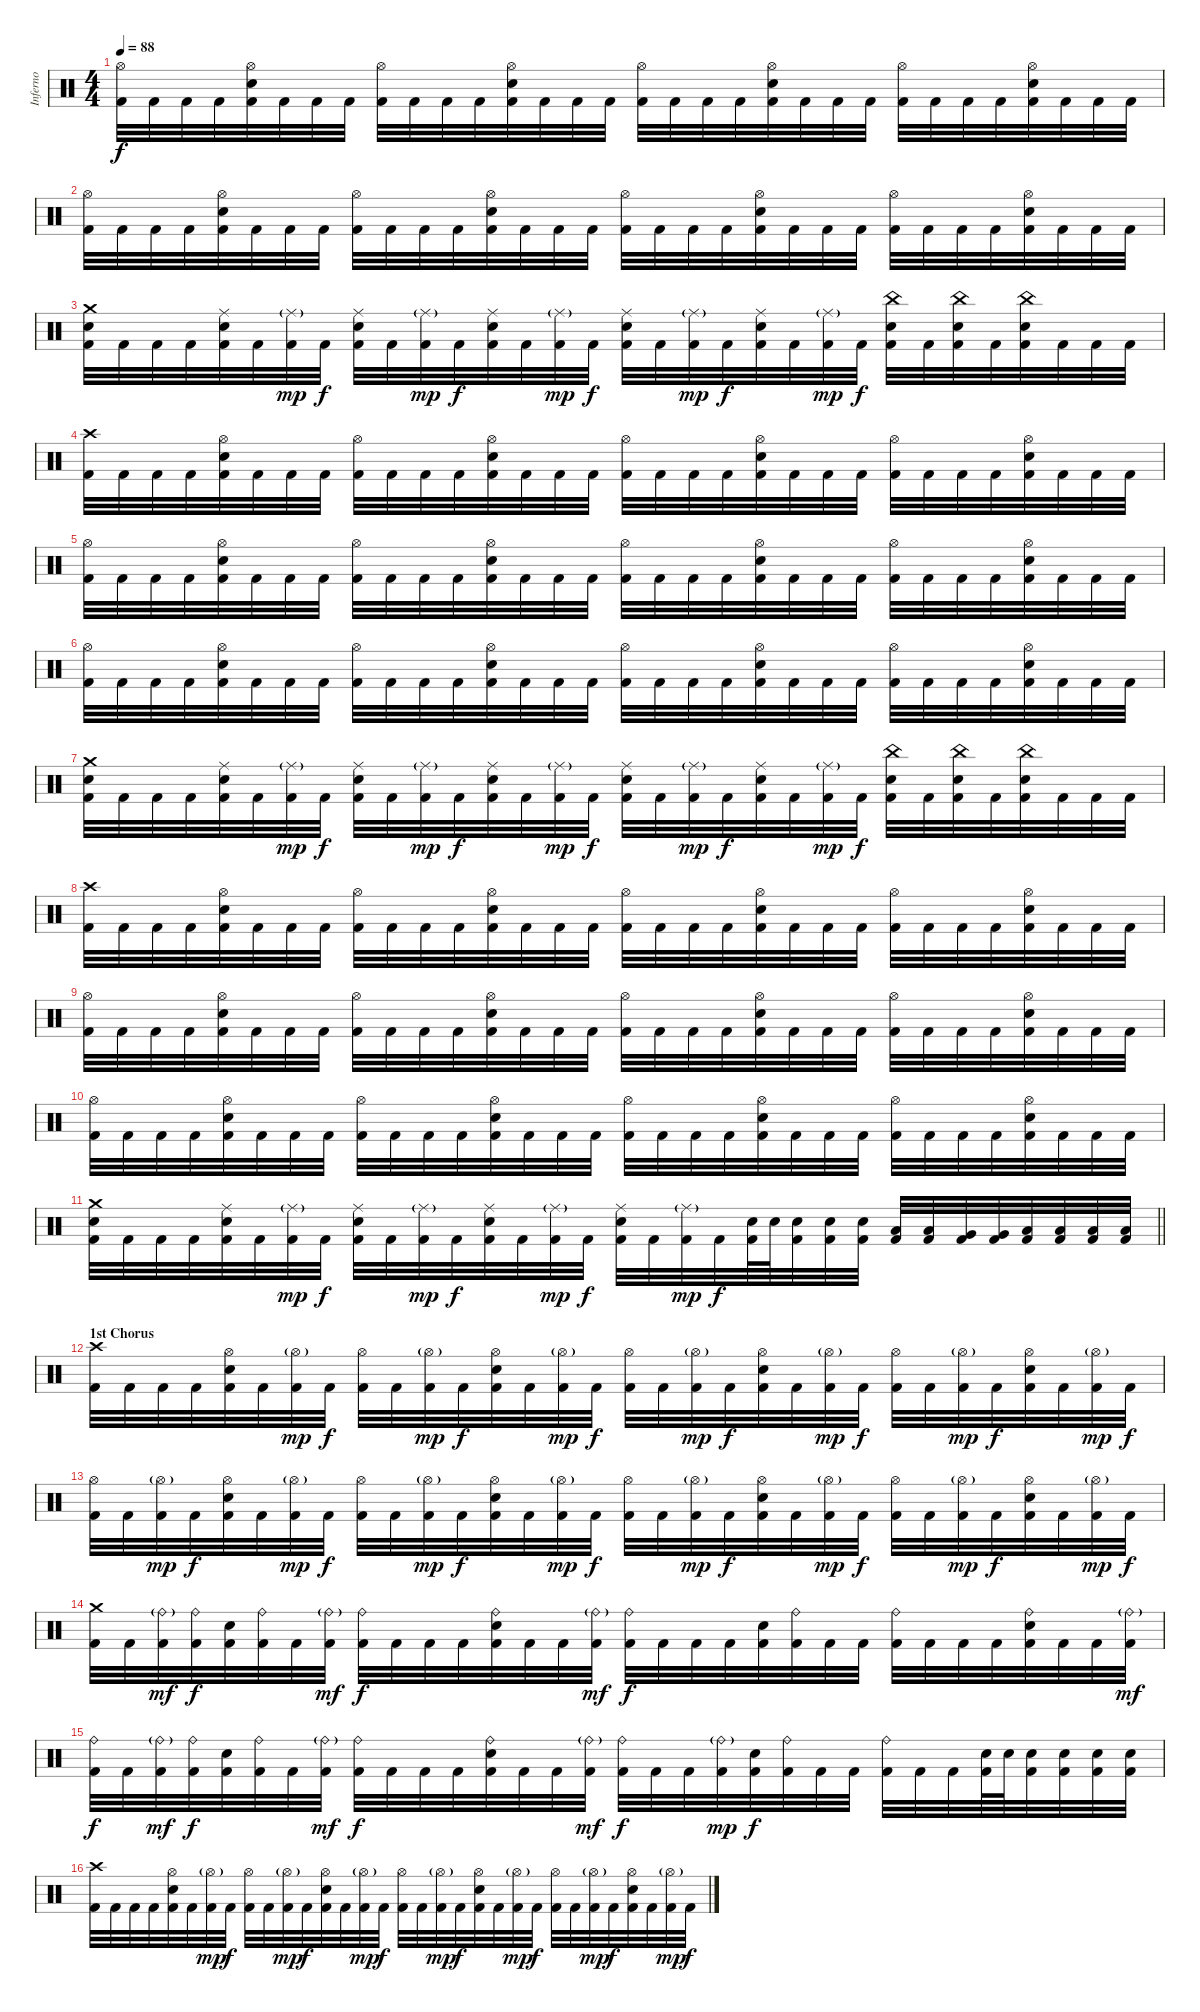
\track ("Inferno" "Inferno") {instrument percussion}
\staff {score}
\articulation defaults
\ts (4 4)
\tempo 88
\clef neutral
\ks c
("Hi-Hat (open)" "Kick (hit) 2").32{dy f} "Kick (hit) 2".32 "Kick (hit) 2".32 "Kick (hit) 2".32 ("Hi-Hat (open)" "Snare (hit) 2" "Kick (hit) 2").32 "Kick (hit) 2".32 "Kick (hit) 2".32 "Kick (hit) 2".32 ("Hi-Hat (open)" "Kick (hit) 2").32 "Kick (hit) 2".32 "Kick (hit) 2".32 "Kick (hit) 2".32 ("Hi-Hat (open)" "Snare (hit) 2" "Kick (hit) 2").32 "Kick (hit) 2".32 "Kick (hit) 2".32 "Kick (hit) 2".32 ("Hi-Hat (open)" "Kick (hit) 2").32 "Kick (hit) 2".32 "Kick (hit) 2".32 "Kick (hit) 2".32 ("Hi-Hat (open)" "Snare (hit) 2" "Kick (hit) 2").32 "Kick (hit) 2".32 "Kick (hit) 2".32 "Kick (hit) 2".32 ("Hi-Hat (open)" "Kick (hit) 2").32 "Kick (hit) 2".32 "Kick (hit) 2".32 "Kick (hit) 2".32 ("Hi-Hat (open)" "Snare (hit) 2" "Kick (hit) 2").32 "Kick (hit) 2".32 "Kick (hit) 2".32 "Kick (hit) 2".32 |
("Hi-Hat (open)" "Kick (hit) 2").32 "Kick (hit) 2".32 "Kick (hit) 2".32 "Kick (hit) 2".32 ("Hi-Hat (open)" "Snare (hit) 2" "Kick (hit) 2").32 "Kick (hit) 2".32 "Kick (hit) 2".32 "Kick (hit) 2".32 ("Hi-Hat (open)" "Kick (hit) 2").32 "Kick (hit) 2".32 "Kick (hit) 2".32 "Kick (hit) 2".32 ("Hi-Hat (open)" "Snare (hit) 2" "Kick (hit) 2").32 "Kick (hit) 2".32 "Kick (hit) 2".32 "Kick (hit) 2".32 ("Hi-Hat (open)" "Kick (hit) 2").32 "Kick (hit) 2".32 "Kick (hit) 2".32 "Kick (hit) 2".32 ("Hi-Hat (open)" "Snare (hit) 2" "Kick (hit) 2").32 "Kick (hit) 2".32 "Kick (hit) 2".32 "Kick (hit) 2".32 ("Hi-Hat (open)" "Kick (hit) 2").32 "Kick (hit) 2".32 "Kick (hit) 2".32 "Kick (hit) 2".32 ("Hi-Hat (open)" "Snare (hit) 2" "Kick (hit) 2").32 "Kick (hit) 2".32 "Kick (hit) 2".32 "Kick (hit) 2".32 |
("Crash medium (hit)" "Snare (hit) 2" "Kick (hit) 2").32 "Kick (hit) 2".32 "Kick (hit) 2".32 "Kick (hit) 2".32 ("Ride (middle)" "Snare (hit) 2" "Kick (hit) 2").32 "Kick (hit) 2".32 ("Ride (middle)"{g} "Kick (hit) 2").32{dy mp} "Kick (hit) 2".32{dy f} ("Ride (middle)" "Snare (hit) 2" "Kick (hit) 2").32 "Kick (hit) 2".32 ("Ride (middle)"{g} "Kick (hit) 2").32{dy mp} "Kick (hit) 2".32{dy f} ("Ride (middle)" "Snare (hit) 2" "Kick (hit) 2").32 "Kick (hit) 2".32 ("Ride (middle)"{g} "Kick (hit) 2").32{dy mp} "Kick (hit) 2".32{dy f} ("Ride (middle)" "Snare (hit) 2" "Kick (hit) 2").32 "Kick (hit) 2".32 ("Ride (middle)"{g} "Kick (hit) 2").32{dy mp} "Kick (hit) 2".32{dy f} ("Ride (middle)" "Snare (hit) 2" "Kick (hit) 2").32 "Kick (hit) 2".32 ("Ride (middle)"{g} "Kick (hit) 2").32{dy mp} "Kick (hit) 2".32{dy f} ("China (hit)" "Snare (hit) 2" "Kick (hit) 2").32 "Kick (hit) 2".32 ("China (hit)" "Snare (hit) 2" "Kick (hit) 2").32 "Kick (hit) 2".32 ("China (hit)" "Snare (hit) 2" "Kick (hit) 2").32 "Kick (hit) 2".32 "Kick (hit) 2".32 "Kick (hit) 2".32 |
("Crash high (hit)" "Kick (hit) 2").32 "Kick (hit) 2".32 "Kick (hit) 2".32 "Kick (hit) 2".32 ("Hi-Hat (open)" "Snare (hit) 2" "Kick (hit) 2").32 "Kick (hit) 2".32 "Kick (hit) 2".32 "Kick (hit) 2".32 ("Hi-Hat (open)" "Kick (hit) 2").32 "Kick (hit) 2".32 "Kick (hit) 2".32 "Kick (hit) 2".32 ("Hi-Hat (open)" "Snare (hit) 2" "Kick (hit) 2").32 "Kick (hit) 2".32 "Kick (hit) 2".32 "Kick (hit) 2".32 ("Hi-Hat (open)" "Kick (hit) 2").32 "Kick (hit) 2".32 "Kick (hit) 2".32 "Kick (hit) 2".32 ("Hi-Hat (open)" "Snare (hit) 2" "Kick (hit) 2").32 "Kick (hit) 2".32 "Kick (hit) 2".32 "Kick (hit) 2".32 ("Hi-Hat (open)" "Kick (hit) 2").32 "Kick (hit) 2".32 "Kick (hit) 2".32 "Kick (hit) 2".32 ("Hi-Hat (open)" "Snare (hit) 2" "Kick (hit) 2").32 "Kick (hit) 2".32 "Kick (hit) 2".32 "Kick (hit) 2".32 |
("Hi-Hat (open)" "Kick (hit) 2").32 "Kick (hit) 2".32 "Kick (hit) 2".32 "Kick (hit) 2".32 ("Hi-Hat (open)" "Snare (hit) 2" "Kick (hit) 2").32 "Kick (hit) 2".32 "Kick (hit) 2".32 "Kick (hit) 2".32 ("Hi-Hat (open)" "Kick (hit) 2").32 "Kick (hit) 2".32 "Kick (hit) 2".32 "Kick (hit) 2".32 ("Hi-Hat (open)" "Snare (hit) 2" "Kick (hit) 2").32 "Kick (hit) 2".32 "Kick (hit) 2".32 "Kick (hit) 2".32 ("Hi-Hat (open)" "Kick (hit) 2").32 "Kick (hit) 2".32 "Kick (hit) 2".32 "Kick (hit) 2".32 ("Hi-Hat (open)" "Snare (hit) 2" "Kick (hit) 2").32 "Kick (hit) 2".32 "Kick (hit) 2".32 "Kick (hit) 2".32 ("Hi-Hat (open)" "Kick (hit) 2").32 "Kick (hit) 2".32 "Kick (hit) 2".32 "Kick (hit) 2".32 ("Hi-Hat (open)" "Snare (hit) 2" "Kick (hit) 2").32 "Kick (hit) 2".32 "Kick (hit) 2".32 "Kick (hit) 2".32 |
("Hi-Hat (open)" "Kick (hit) 2").32 "Kick (hit) 2".32 "Kick (hit) 2".32 "Kick (hit) 2".32 ("Hi-Hat (open)" "Snare (hit) 2" "Kick (hit) 2").32 "Kick (hit) 2".32 "Kick (hit) 2".32 "Kick (hit) 2".32 ("Hi-Hat (open)" "Kick (hit) 2").32 "Kick (hit) 2".32 "Kick (hit) 2".32 "Kick (hit) 2".32 ("Hi-Hat (open)" "Snare (hit) 2" "Kick (hit) 2").32 "Kick (hit) 2".32 "Kick (hit) 2".32 "Kick (hit) 2".32 ("Hi-Hat (open)" "Kick (hit) 2").32 "Kick (hit) 2".32 "Kick (hit) 2".32 "Kick (hit) 2".32 ("Hi-Hat (open)" "Snare (hit) 2" "Kick (hit) 2").32 "Kick (hit) 2".32 "Kick (hit) 2".32 "Kick (hit) 2".32 ("Hi-Hat (open)" "Kick (hit) 2").32 "Kick (hit) 2".32 "Kick (hit) 2".32 "Kick (hit) 2".32 ("Hi-Hat (open)" "Snare (hit) 2" "Kick (hit) 2").32 "Kick (hit) 2".32 "Kick (hit) 2".32 "Kick (hit) 2".32 |
("Crash medium (hit)" "Snare (hit) 2" "Kick (hit) 2").32 "Kick (hit) 2".32 "Kick (hit) 2".32 "Kick (hit) 2".32 ("Ride (middle)" "Snare (hit) 2" "Kick (hit) 2").32 "Kick (hit) 2".32 ("Ride (middle)"{g} "Kick (hit) 2").32{dy mp} "Kick (hit) 2".32{dy f} ("Ride (middle)" "Snare (hit) 2" "Kick (hit) 2").32 "Kick (hit) 2".32 ("Ride (middle)"{g} "Kick (hit) 2").32{dy mp} "Kick (hit) 2".32{dy f} ("Ride (middle)" "Snare (hit) 2" "Kick (hit) 2").32 "Kick (hit) 2".32 ("Ride (middle)"{g} "Kick (hit) 2").32{dy mp} "Kick (hit) 2".32{dy f} ("Ride (middle)" "Snare (hit) 2" "Kick (hit) 2").32 "Kick (hit) 2".32 ("Ride (middle)"{g} "Kick (hit) 2").32{dy mp} "Kick (hit) 2".32{dy f} ("Ride (middle)" "Snare (hit) 2" "Kick (hit) 2").32 "Kick (hit) 2".32 ("Ride (middle)"{g} "Kick (hit) 2").32{dy mp} "Kick (hit) 2".32{dy f} ("China (hit)" "Snare (hit) 2" "Kick (hit) 2").32 "Kick (hit) 2".32 ("China (hit)" "Snare (hit) 2" "Kick (hit) 2").32 "Kick (hit) 2".32 ("China (hit)" "Snare (hit) 2" "Kick (hit) 2").32 "Kick (hit) 2".32 "Kick (hit) 2".32 "Kick (hit) 2".32 |
("Crash high (hit)" "Kick (hit) 2").32 "Kick (hit) 2".32 "Kick (hit) 2".32 "Kick (hit) 2".32 ("Hi-Hat (open)" "Snare (hit) 2" "Kick (hit) 2").32 "Kick (hit) 2".32 "Kick (hit) 2".32 "Kick (hit) 2".32 ("Hi-Hat (open)" "Kick (hit) 2").32 "Kick (hit) 2".32 "Kick (hit) 2".32 "Kick (hit) 2".32 ("Hi-Hat (open)" "Snare (hit) 2" "Kick (hit) 2").32 "Kick (hit) 2".32 "Kick (hit) 2".32 "Kick (hit) 2".32 ("Hi-Hat (open)" "Kick (hit) 2").32 "Kick (hit) 2".32 "Kick (hit) 2".32 "Kick (hit) 2".32 ("Hi-Hat (open)" "Snare (hit) 2" "Kick (hit) 2").32 "Kick (hit) 2".32 "Kick (hit) 2".32 "Kick (hit) 2".32 ("Hi-Hat (open)" "Kick (hit) 2").32 "Kick (hit) 2".32 "Kick (hit) 2".32 "Kick (hit) 2".32 ("Hi-Hat (open)" "Snare (hit) 2" "Kick (hit) 2").32 "Kick (hit) 2".32 "Kick (hit) 2".32 "Kick (hit) 2".32 |
("Hi-Hat (open)" "Kick (hit) 2").32 "Kick (hit) 2".32 "Kick (hit) 2".32 "Kick (hit) 2".32 ("Hi-Hat (open)" "Snare (hit) 2" "Kick (hit) 2").32 "Kick (hit) 2".32 "Kick (hit) 2".32 "Kick (hit) 2".32 ("Hi-Hat (open)" "Kick (hit) 2").32 "Kick (hit) 2".32 "Kick (hit) 2".32 "Kick (hit) 2".32 ("Hi-Hat (open)" "Snare (hit) 2" "Kick (hit) 2").32 "Kick (hit) 2".32 "Kick (hit) 2".32 "Kick (hit) 2".32 ("Hi-Hat (open)" "Kick (hit) 2").32 "Kick (hit) 2".32 "Kick (hit) 2".32 "Kick (hit) 2".32 ("Hi-Hat (open)" "Snare (hit) 2" "Kick (hit) 2").32 "Kick (hit) 2".32 "Kick (hit) 2".32 "Kick (hit) 2".32 ("Hi-Hat (open)" "Kick (hit) 2").32 "Kick (hit) 2".32 "Kick (hit) 2".32 "Kick (hit) 2".32 ("Hi-Hat (open)" "Snare (hit) 2" "Kick (hit) 2").32 "Kick (hit) 2".32 "Kick (hit) 2".32 "Kick (hit) 2".32 |
("Hi-Hat (open)" "Kick (hit) 2").32 "Kick (hit) 2".32 "Kick (hit) 2".32 "Kick (hit) 2".32 ("Hi-Hat (open)" "Snare (hit) 2" "Kick (hit) 2").32 "Kick (hit) 2".32 "Kick (hit) 2".32 "Kick (hit) 2".32 ("Hi-Hat (open)" "Kick (hit) 2").32 "Kick (hit) 2".32 "Kick (hit) 2".32 "Kick (hit) 2".32 ("Hi-Hat (open)" "Snare (hit) 2" "Kick (hit) 2").32 "Kick (hit) 2".32 "Kick (hit) 2".32 "Kick (hit) 2".32 ("Hi-Hat (open)" "Kick (hit) 2").32 "Kick (hit) 2".32 "Kick (hit) 2".32 "Kick (hit) 2".32 ("Hi-Hat (open)" "Snare (hit) 2" "Kick (hit) 2").32 "Kick (hit) 2".32 "Kick (hit) 2".32 "Kick (hit) 2".32 ("Hi-Hat (open)" "Kick (hit) 2").32 "Kick (hit) 2".32 "Kick (hit) 2".32 "Kick (hit) 2".32 ("Hi-Hat (open)" "Snare (hit) 2" "Kick (hit) 2").32 "Kick (hit) 2".32 "Kick (hit) 2".32 "Kick (hit) 2".32 |
\barLineRight lightlight
("Crash medium (hit)" "Snare (hit) 2" "Kick (hit) 2").32 "Kick (hit) 2".32 "Kick (hit) 2".32 "Kick (hit) 2".32 ("Ride (middle)" "Snare (hit) 2" "Kick (hit) 2").32 "Kick (hit) 2".32 ("Ride (middle)"{g} "Kick (hit) 2").32{dy mp} "Kick (hit) 2".32{dy f} ("Ride (middle)" "Snare (hit) 2" "Kick (hit) 2").32 "Kick (hit) 2".32 ("Ride (middle)"{g} "Kick (hit) 2").32{dy mp} "Kick (hit) 2".32{dy f} ("Ride (middle)" "Snare (hit) 2" "Kick (hit) 2").32 "Kick (hit) 2".32 ("Ride (middle)"{g} "Kick (hit) 2").32{dy mp} "Kick (hit) 2".32{dy f} ("Ride (middle)" "Snare (hit) 2" "Kick (hit) 2").32 "Kick (hit) 2".32 ("Ride (middle)"{g} "Kick (hit) 2").32{dy mp} "Kick (hit) 2".32{dy f} ("Snare (hit) 2" "Kick (hit) 2").64 "Snare (hit) 2".64 ("Snare (hit) 2" "Kick (hit) 2").32 ("Snare (hit) 2" "Kick (hit) 2").32 ("Snare (hit) 2" "Kick (hit) 2").32 ("Low Tom (hit)" "Kick (hit) 2").32 ("Low Tom (hit)" "Kick (hit) 2").32 ("Very Low Tom (hit)" "Kick (hit) 2").32 ("Very Low Tom (hit)" "Kick (hit) 2").32 ("Low Floor Tom (hit)" "Kick (hit) 2").32 ("Low Floor Tom (hit)" "Kick (hit) 2").32 ("Low Floor Tom (hit)" "Kick (hit) 2").32 ("Low Floor Tom (hit)" "Kick (hit) 2").32 |
\section ("" "1st Chorus")
("Crash high (hit)" "Kick (hit) 2").32 "Kick (hit) 2".32 "Kick (hit) 2".32 "Kick (hit) 2".32 ("Hi-Hat (open)" "Snare (hit) 2" "Kick (hit) 2").32 "Kick (hit) 2".32 ("Hi-Hat (open)"{g} "Kick (hit) 2").32{dy mp} "Kick (hit) 2".32{dy f} ("Hi-Hat (open)" "Kick (hit) 2").32 "Kick (hit) 2".32 ("Hi-Hat (open)"{g} "Kick (hit) 2").32{dy mp} "Kick (hit) 2".32{dy f} ("Hi-Hat (open)" "Snare (hit) 2" "Kick (hit) 2").32 "Kick (hit) 2".32 ("Hi-Hat (open)"{g} "Kick (hit) 2").32{dy mp} "Kick (hit) 2".32{dy f} ("Hi-Hat (open)" "Kick (hit) 2").32 "Kick (hit) 2".32 ("Hi-Hat (open)"{g} "Kick (hit) 2").32{dy mp} "Kick (hit) 2".32{dy f} ("Hi-Hat (open)" "Snare (hit) 2" "Kick (hit) 2").32 "Kick (hit) 2".32 ("Hi-Hat (open)"{g} "Kick (hit) 2").32{dy mp} "Kick (hit) 2".32{dy f} ("Hi-Hat (open)" "Kick (hit) 2").32 "Kick (hit) 2".32 ("Hi-Hat (open)"{g} "Kick (hit) 2").32{dy mp} "Kick (hit) 2".32{dy f} ("Hi-Hat (open)" "Snare (hit) 2" "Kick (hit) 2").32 "Kick (hit) 2".32 ("Hi-Hat (open)"{g} "Kick (hit) 2").32{dy mp} "Kick (hit) 2".32{dy f} |
("Hi-Hat (open)" "Kick (hit) 2").32 "Kick (hit) 2".32 ("Hi-Hat (open)"{g} "Kick (hit) 2").32{dy mp} "Kick (hit) 2".32{dy f} ("Hi-Hat (open)" "Snare (hit) 2" "Kick (hit) 2").32 "Kick (hit) 2".32 ("Hi-Hat (open)"{g} "Kick (hit) 2").32{dy mp} "Kick (hit) 2".32{dy f} ("Hi-Hat (open)" "Kick (hit) 2").32 "Kick (hit) 2".32 ("Hi-Hat (open)"{g} "Kick (hit) 2").32{dy mp} "Kick (hit) 2".32{dy f} ("Hi-Hat (open)" "Snare (hit) 2" "Kick (hit) 2").32 "Kick (hit) 2".32 ("Hi-Hat (open)"{g} "Kick (hit) 2").32{dy mp} "Kick (hit) 2".32{dy f} ("Hi-Hat (open)" "Kick (hit) 2").32 "Kick (hit) 2".32 ("Hi-Hat (open)"{g} "Kick (hit) 2").32{dy mp} "Kick (hit) 2".32{dy f} ("Hi-Hat (open)" "Snare (hit) 2" "Kick (hit) 2").32 "Kick (hit) 2".32 ("Hi-Hat (open)"{g} "Kick (hit) 2").32{dy mp} "Kick (hit) 2".32{dy f} ("Hi-Hat (open)" "Kick (hit) 2").32 "Kick (hit) 2".32 ("Hi-Hat (open)"{g} "Kick (hit) 2").32{dy mp} "Kick (hit) 2".32{dy f} ("Hi-Hat (open)" "Snare (hit) 2" "Kick (hit) 2").32 "Kick (hit) 2".32 ("Hi-Hat (open)"{g} "Kick (hit) 2").32{dy mp} "Kick (hit) 2".32{dy f} |
("Crash medium (hit)" "Kick (hit) 2").32 "Kick (hit) 2".32 ("Ride (bell)"{g} "Kick (hit) 2").32{dy mf} ("Ride (bell)" "Kick (hit) 2").32{dy f} ("Snare (hit) 2" "Kick (hit) 2").32 ("Ride (bell)" "Kick (hit) 2").32 "Kick (hit) 2".32 ("Ride (bell)"{g} "Kick (hit) 2").32{dy mf} ("Ride (bell)" "Kick (hit) 2").32{dy f} "Kick (hit) 2".32 "Kick (hit) 2".32 "Kick (hit) 2".32 ("Ride (bell)" "Snare (hit) 2" "Kick (hit) 2").32 "Kick (hit) 2".32 "Kick (hit) 2".32 ("Ride (bell)"{g} "Kick (hit) 2").32{dy mf} ("Ride (bell)" "Kick (hit) 2").32{dy f} "Kick (hit) 2".32 "Kick (hit) 2".32 "Kick (hit) 2".32 ("Snare (hit) 2" "Kick (hit) 2").32 ("Ride (bell)" "Kick (hit) 2").32 "Kick (hit) 2".32 "Kick (hit) 2".32 ("Ride (bell)" "Kick (hit) 2").32 "Kick (hit) 2".32 "Kick (hit) 2".32 "Kick (hit) 2".32 ("Ride (bell)" "Snare (hit) 2" "Kick (hit) 2").32 "Kick (hit) 2".32 "Kick (hit) 2".32 ("Ride (bell)"{g} "Kick (hit) 2").32{dy mf} |
("Ride (bell)" "Kick (hit) 2").32{dy f} "Kick (hit) 2".32 ("Ride (bell)"{g} "Kick (hit) 2").32{dy mf} ("Ride (bell)" "Kick (hit) 2").32{dy f} ("Snare (hit) 2" "Kick (hit) 2").32 ("Ride (bell)" "Kick (hit) 2").32 "Kick (hit) 2".32 ("Ride (bell)"{g} "Kick (hit) 2").32{dy mf} ("Ride (bell)" "Kick (hit) 2").32{dy f} "Kick (hit) 2".32 "Kick (hit) 2".32 "Kick (hit) 2".32 ("Ride (bell)" "Snare (hit) 2" "Kick (hit) 2").32 "Kick (hit) 2".32 "Kick (hit) 2".32 ("Ride (bell)"{g} "Kick (hit) 2").32{dy mf} ("Ride (bell)" "Kick (hit) 2").32{dy f} "Kick (hit) 2".32 "Kick (hit) 2".32 ("Ride (bell)"{g} "Kick (hit) 2").32{dy mp} ("Snare (hit) 2" "Kick (hit) 2").32{dy f} ("Ride (bell)" "Kick (hit) 2").32 "Kick (hit) 2".32 "Kick (hit) 2".32 ("Ride (bell)" "Kick (hit) 2").32 "Kick (hit) 2".32 "Kick (hit) 2".32 ("Snare (hit) 2" "Kick (hit) 2").64 "Snare (hit) 2".64 ("Snare (hit) 2" "Kick (hit) 2").32 ("Snare (hit) 2" "Kick (hit) 2").32 ("Snare (hit) 2" "Kick (hit) 2").32 ("Snare (hit) 2" "Kick (hit) 2").32 |
("Crash high (hit)" "Kick (hit) 2").32 "Kick (hit) 2".32 "Kick (hit) 2".32 "Kick (hit) 2".32 ("Hi-Hat (open)" "Snare (hit) 2" "Kick (hit) 2").32 "Kick (hit) 2".32 ("Hi-Hat (open)"{g} "Kick (hit) 2").32{dy mp} "Kick (hit) 2".32{dy f} ("Hi-Hat (open)" "Kick (hit) 2").32 "Kick (hit) 2".32 ("Hi-Hat (open)"{g} "Kick (hit) 2").32{dy mp} "Kick (hit) 2".32{dy f} ("Hi-Hat (open)" "Snare (hit) 2" "Kick (hit) 2").32 "Kick (hit) 2".32 ("Hi-Hat (open)"{g} "Kick (hit) 2").32{dy mp} "Kick (hit) 2".32{dy f} ("Hi-Hat (open)" "Kick (hit) 2").32 "Kick (hit) 2".32 ("Hi-Hat (open)"{g} "Kick (hit) 2").32{dy mp} "Kick (hit) 2".32{dy f} ("Hi-Hat (open)" "Snare (hit) 2" "Kick (hit) 2").32 "Kick (hit) 2".32 ("Hi-Hat (open)"{g} "Kick (hit) 2").32{dy mp} "Kick (hit) 2".32{dy f} ("Hi-Hat (open)" "Kick (hit) 2").32 "Kick (hit) 2".32 ("Hi-Hat (open)"{g} "Kick (hit) 2").32{dy mp} "Kick (hit) 2".32{dy f} ("Hi-Hat (open)" "Snare (hit) 2" "Kick (hit) 2").32 "Kick (hit) 2".32 ("Hi-Hat (open)"{g} "Kick (hit) 2").32{dy mp} "Kick (hit) 2".32{dy f}
